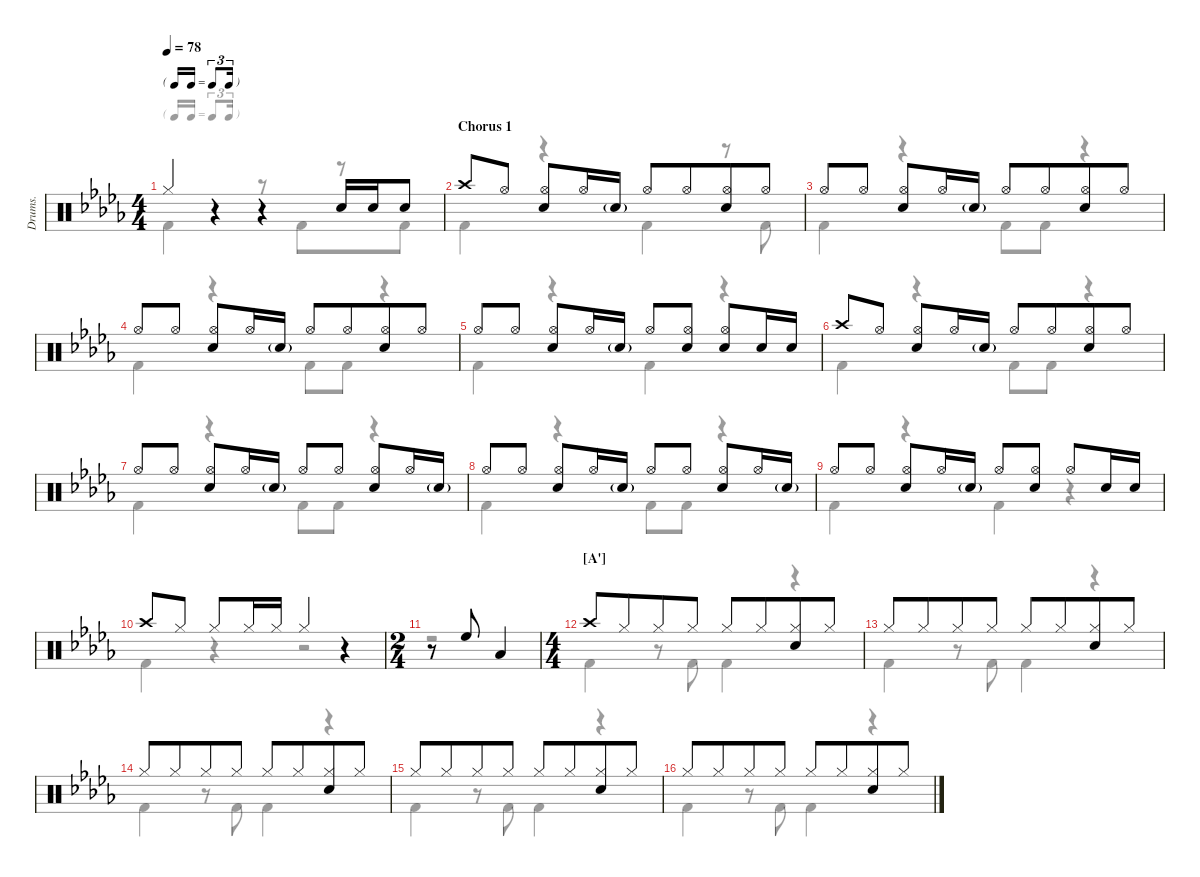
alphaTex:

\defaultSystemsLayout 4
\hideDynamics
\otherSystemsTrackNameOrientation horizontal
\track ("Drumkit" "Drums.") {defaultSystemsLayout 4 instrument percussion}
\staff {score}
\articulation defaults
\voice
\ts (4 4)
\tf triplet16th
\tempo 78
\clef neutral
\ks db "Hi-Hat (closed)"{acc forcenatural}.4{dy mf beam Up}
r.4{beam Up} r.4{beam Up} "Snare (hit) 2"{acc forcenatural}.16{beam Up} "Snare (hit) 2"{acc forcenatural}.16{beam Up} "Snare (hit) 2"{acc forcenatural}.8{beam Up} |
\section ("" "Chorus 1")
"Crash high (hit)"{acc forcenatural}.8{beam Up} "Hi-Hat (open)"{acc forcenatural}.8{beam Up} ("Hi-Hat (open)"{acc forcenatural} "Snare (hit) 2"{acc forcenatural}).8{beam Up} "Hi-Hat (open)"{acc forcenatural}.16{beam Up} "Snare (hit) 2"{g acc forcenatural}.16{beam Up} "Hi-Hat (open)"{acc forcenatural}.8{beam Up beam merge} "Hi-Hat (open)"{acc forcenatural}.8{beam Up beam merge} ("Hi-Hat (open)"{acc forcenatural} "Snare (hit) 2"{acc forcenatural}).8{beam Up beam merge} "Hi-Hat (open)"{acc forcenatural}.8{beam Up} |
"Hi-Hat (open)"{acc forcenatural}.8{beam Up} "Hi-Hat (open)"{acc forcenatural}.8{beam Up} ("Hi-Hat (open)"{acc forcenatural} "Snare (hit) 2"{acc forcenatural}).8{beam Up} "Hi-Hat (open)"{acc forcenatural}.16{beam Up} "Snare (hit) 2"{g acc forcenatural}.16{beam Up} "Hi-Hat (open)"{acc forcenatural}.8{beam Up beam merge} "Hi-Hat (open)"{acc forcenatural}.8{beam Up beam merge} ("Hi-Hat (open)"{acc forcenatural} "Snare (hit) 2"{acc forcenatural}).8{beam Up beam merge} "Hi-Hat (open)"{acc forcenatural}.8{beam Up} |
"Hi-Hat (open)"{acc forcenatural}.8{beam Up} "Hi-Hat (open)"{acc forcenatural}.8{beam Up} ("Hi-Hat (open)"{acc forcenatural} "Snare (hit) 2"{acc forcenatural}).8{beam Up} "Hi-Hat (open)"{acc forcenatural}.16{beam Up} "Snare (hit) 2"{g acc forcenatural}.16{beam Up} "Hi-Hat (open)"{acc forcenatural}.8{beam Up beam merge} "Hi-Hat (open)"{acc forcenatural}.8{beam Up beam merge} ("Hi-Hat (open)"{acc forcenatural} "Snare (hit) 2"{acc forcenatural}).8{beam Up beam merge} "Hi-Hat (open)"{acc forcenatural}.8{beam Up} |
"Hi-Hat (open)"{acc forcenatural}.8{beam Up} "Hi-Hat (open)"{acc forcenatural}.8{beam Up} ("Hi-Hat (open)"{acc forcenatural} "Snare (hit) 2"{acc forcenatural}).8{beam Up} "Hi-Hat (open)"{acc forcenatural}.16{beam Up} "Snare (hit) 2"{g acc forcenatural}.16{beam Up} "Hi-Hat (open)"{acc forcenatural}.8{beam Up beam merge} ("Hi-Hat (open)"{acc forcenatural} "Snare (hit) 2"{acc forcenatural}).8{beam Up beam split} ("Hi-Hat (open)"{acc forcenatural} "Snare (hit) 2"{acc forcenatural}).8{beam Up} "Snare (hit) 2"{acc forcenatural}.16{beam Up} "Snare (hit) 2"{acc forcenatural}.16{beam Up} |
"Crash high (hit)"{acc forcenatural}.8{beam Up} "Hi-Hat (open)"{acc forcenatural}.8{beam Up} ("Hi-Hat (open)"{acc forcenatural} "Snare (hit) 2"{acc forcenatural}).8{beam Up} "Hi-Hat (open)"{acc forcenatural}.16{beam Up} "Snare (hit) 2"{g acc forcenatural}.16{beam Up} "Hi-Hat (open)"{acc forcenatural}.8{beam Up beam merge} "Hi-Hat (open)"{acc forcenatural}.8{beam Up beam merge} ("Hi-Hat (open)"{acc forcenatural} "Snare (hit) 2"{acc forcenatural}).8{beam Up beam merge} "Hi-Hat (open)"{acc forcenatural}.8{beam Up} |
"Hi-Hat (open)"{acc forcenatural}.8{beam Up} "Hi-Hat (open)"{acc forcenatural}.8{beam Up} ("Hi-Hat (open)"{acc forcenatural} "Snare (hit) 2"{acc forcenatural}).8{beam Up} "Hi-Hat (open)"{acc forcenatural}.16{beam Up} "Snare (hit) 2"{g acc forcenatural}.16{beam Up} "Hi-Hat (open)"{acc forcenatural}.8{beam Up} "Hi-Hat (open)"{acc forcenatural}.8{beam Up} ("Hi-Hat (open)"{acc forcenatural} "Snare (hit) 2"{acc forcenatural}).8{beam Up} "Hi-Hat (open)"{acc forcenatural}.16{beam Up} "Snare (hit) 2"{g acc forcenatural}.16{beam Up} |
"Hi-Hat (open)"{acc forcenatural}.8{beam Up} "Hi-Hat (open)"{acc forcenatural}.8{beam Up} ("Hi-Hat (open)"{acc forcenatural} "Snare (hit) 2"{acc forcenatural}).8{beam Up} "Hi-Hat (open)"{acc forcenatural}.16{beam Up} "Snare (hit) 2"{g acc forcenatural}.16{beam Up} "Hi-Hat (open)"{acc forcenatural}.8{beam Up} "Hi-Hat (open)"{acc forcenatural}.8{beam Up} ("Hi-Hat (open)"{acc forcenatural} "Snare (hit) 2"{acc forcenatural}).8{beam Up} "Hi-Hat (open)"{acc forcenatural}.16{beam Up} "Snare (hit) 2"{g acc forcenatural}.16{beam Up} |
"Hi-Hat (open)"{acc forcenatural}.8{beam Up} "Hi-Hat (open)"{acc forcenatural}.8{beam Up} ("Hi-Hat (open)"{acc forcenatural} "Snare (hit) 2"{acc forcenatural}).8{beam Up} "Hi-Hat (open)"{acc forcenatural}.16{beam Up} "Snare (hit) 2"{g acc forcenatural}.16{beam Up} "Hi-Hat (open)"{acc forcenatural}.8{beam Up} ("Hi-Hat (open)"{acc forcenatural} "Snare (hit) 2"{acc forcenatural}).8{beam Up} "Hi-Hat (open)"{acc forcenatural}.8{beam Up} "Snare (hit) 2"{acc forcenatural}.16{beam Up} "Snare (hit) 2"{acc forcenatural}.16{beam Up} |
"Crash high (hit)"{acc forcenatural}.8{beam Up} "Hi-Hat (closed)"{acc forcenatural}.8{beam Up} "Hi-Hat (closed)"{acc forcenatural}.8{beam Up} "Hi-Hat (closed)"{acc forcenatural}.16{beam Up} "Hi-Hat (closed)"{acc forcenatural}.16{beam Up} "Hi-Hat (closed)"{acc forcenatural}.4{beam Up} r.4{beam Up} |
\ts (2 4)
r.8{beam Up} "High Floor Tom (hit)"{acc forcenatural}.8{beam Up} "Low Tom (hit)"{acc forcenatural}.4{beam Up} |
\ts (4 4)
\section ("A'" "")
"Crash high (hit)"{acc forcenatural}.8{beam Up} "Hi-Hat (closed)"{acc forcenatural}.8{beam Up beam merge} "Hi-Hat (closed)"{acc forcenatural}.8{beam Up beam merge} "Hi-Hat (closed)"{acc forcenatural}.8{beam Up} "Hi-Hat (closed)"{acc forcenatural}.8{beam Up beam merge} "Hi-Hat (closed)"{acc forcenatural}.8{beam Up beam merge} ("Hi-Hat (closed)"{acc forcenatural} "Snare (hit) 2"{acc forcenatural}).8{beam Up} "Hi-Hat (closed)"{acc forcenatural}.8{beam Up beam merge} |
"Hi-Hat (closed)"{acc forcenatural}.8{beam Up} "Hi-Hat (closed)"{acc forcenatural}.8{beam Up beam merge} "Hi-Hat (closed)"{acc forcenatural}.8{beam Up beam merge} "Hi-Hat (closed)"{acc forcenatural}.8{beam Up} "Hi-Hat (closed)"{acc forcenatural}.8{beam Up beam merge} "Hi-Hat (closed)"{acc forcenatural}.8{beam Up beam merge} ("Hi-Hat (closed)"{acc forcenatural} "Snare (hit) 2"{acc forcenatural}).8{beam Up} "Hi-Hat (closed)"{acc forcenatural}.8{beam Up beam merge} |
"Hi-Hat (closed)"{acc forcenatural}.8{beam Up} "Hi-Hat (closed)"{acc forcenatural}.8{beam Up beam merge} "Hi-Hat (closed)"{acc forcenatural}.8{beam Up beam merge} "Hi-Hat (closed)"{acc forcenatural}.8{beam Up} "Hi-Hat (closed)"{acc forcenatural}.8{beam Up beam merge} "Hi-Hat (closed)"{acc forcenatural}.8{beam Up beam merge} ("Hi-Hat (closed)"{acc forcenatural} "Snare (hit) 2"{acc forcenatural}).8{beam Up} "Hi-Hat (closed)"{acc forcenatural}.8{beam Up beam merge} |
"Hi-Hat (closed)"{acc forcenatural}.8{beam Up} "Hi-Hat (closed)"{acc forcenatural}.8{beam Up beam merge} "Hi-Hat (closed)"{acc forcenatural}.8{beam Up beam merge} "Hi-Hat (closed)"{acc forcenatural}.8{beam Up} "Hi-Hat (closed)"{acc forcenatural}.8{beam Up beam merge} "Hi-Hat (closed)"{acc forcenatural}.8{beam Up beam merge} ("Hi-Hat (closed)"{acc forcenatural} "Snare (hit) 2"{acc forcenatural}).8{beam Up} "Hi-Hat (closed)"{acc forcenatural}.8{beam Up beam merge} |
"Hi-Hat (closed)"{acc forcenatural}.8{beam Up} "Hi-Hat (closed)"{acc forcenatural}.8{beam Up beam merge} "Hi-Hat (closed)"{acc forcenatural}.8{beam Up beam merge} "Hi-Hat (closed)"{acc forcenatural}.8{beam Up} "Hi-Hat (closed)"{acc forcenatural}.8{beam Up beam merge} "Hi-Hat (closed)"{acc forcenatural}.8{beam Up beam merge} ("Hi-Hat (closed)"{acc forcenatural} "Snare (hit) 2"{acc forcenatural}).8{beam Up} "Hi-Hat (closed)"{acc forcenatural}.8{beam Up beam merge}
\voice
\clef neutral
\ottava regular
\simile none
\ks db "Kick (hit) 2"{acc forcenatural}.4{dy mf beam Down}
r.4{beam Down} r.8{beam Down beam merge} "Kick (hit) 2"{acc forcenatural}.8{beam Down beam merge} r.8{beam Down beam merge} "Kick (hit) 2"{acc forcenatural}.8{beam Down} |
"Kick (hit) 2"{acc forcenatural}.4{beam Down} r.4{beam Down} "Kick (hit) 2"{acc forcenatural}.4{beam Down} r.8{beam Down} "Kick (hit) 2"{acc forcenatural}.8{beam Down} |
"Kick (hit) 2"{acc forcenatural}.4{beam Down} r.4{beam Down} "Kick (hit) 2"{acc forcenatural}.8{beam Down} "Kick (hit) 2"{acc forcenatural}.8{beam Down} r.4{beam Down} |
"Kick (hit) 2"{acc forcenatural}.4{beam Down} r.4{beam Down} "Kick (hit) 2"{acc forcenatural}.8{beam Down} "Kick (hit) 2"{acc forcenatural}.8{beam Down} r.4{beam Down} |
"Kick (hit) 2"{acc forcenatural}.4{beam Down} r.4{beam Down} "Kick (hit) 2"{acc forcenatural}.4{beam Down} r.4{beam Down} |
"Kick (hit) 2"{acc forcenatural}.4{beam Down} r.4{beam Down} "Kick (hit) 2"{acc forcenatural}.8{beam Down} "Kick (hit) 2"{acc forcenatural}.8{beam Down} r.4{beam Down} |
"Kick (hit) 2"{acc forcenatural}.4{beam Down} r.4{beam Down} "Kick (hit) 2"{acc forcenatural}.8{beam Down} "Kick (hit) 2"{acc forcenatural}.8{beam Down} r.4{beam Down} |
"Kick (hit) 2"{acc forcenatural}.4{beam Down} r.4{beam Down} "Kick (hit) 2"{acc forcenatural}.8{beam Down} "Kick (hit) 2"{acc forcenatural}.8{beam Down} r.4{beam Down} |
"Kick (hit) 2"{acc forcenatural}.4{beam Down} r.4{beam Down} "Kick (hit) 2"{acc forcenatural}.4{beam Down} r.4{beam Down} |
"Kick (hit) 2"{acc forcenatural}.4{beam Down} r.4{beam Down} r.2{beam Down} |
r.2{beam Down} |
"Kick (hit) 2"{acc forcenatural}.4{beam Down} r.8{beam Down} "Kick (hit) 2"{acc forcenatural}.8{beam Down} "Kick (hit) 2"{acc forcenatural}.4{beam Down} r.4{beam Down} |
"Kick (hit) 2"{acc forcenatural}.4{beam Down} r.8{beam Down} "Kick (hit) 2"{acc forcenatural}.8{beam Down} "Kick (hit) 2"{acc forcenatural}.4{beam Down} r.4{beam Down} |
"Kick (hit) 2"{acc forcenatural}.4{beam Down} r.8{beam Down} "Kick (hit) 2"{acc forcenatural}.8{beam Down} "Kick (hit) 2"{acc forcenatural}.4{beam Down} r.4{beam Down} |
"Kick (hit) 2"{acc forcenatural}.4{beam Down} r.8{beam Down} "Kick (hit) 2"{acc forcenatural}.8{beam Down} "Kick (hit) 2"{acc forcenatural}.4{beam Down} r.4{beam Down} |
"Kick (hit) 2"{acc forcenatural}.4{beam Down} r.8{beam Down} "Kick (hit) 2"{acc forcenatural}.8{beam Down} "Kick (hit) 2"{acc forcenatural}.4{beam Down} r.4{beam Down}
